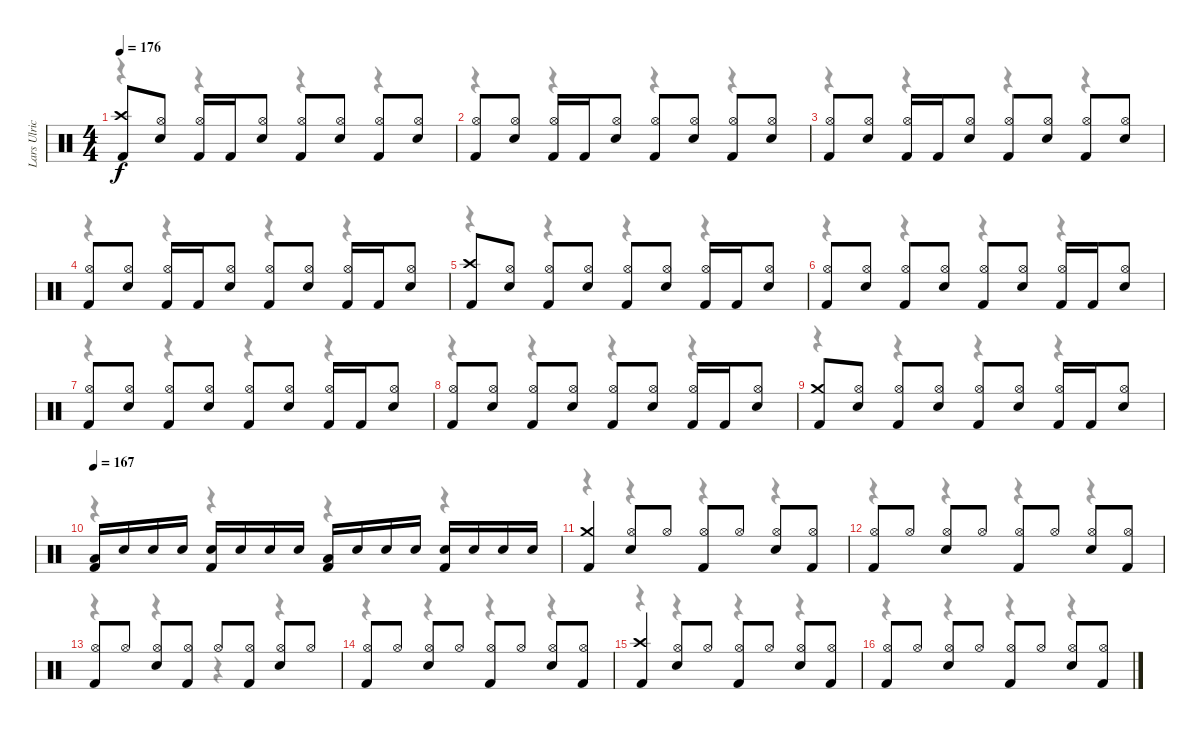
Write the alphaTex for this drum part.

\track ("Lars Ulrich" "Lars Ulric") {instrument percussion}
\staff {score}
\articulation defaults
\voice
\ts (4 4)
\tempo 176
\clef neutral
\ks c
("Crash high (hit)" "Kick (hit) 2").8{dy f} ("Hi-Hat (open)" "Snare (hit) 2").8 ("Hi-Hat (open)" "Kick (hit) 2").16 "Kick (hit) 2".16 ("Hi-Hat (open)" "Snare (hit) 2").8 ("Hi-Hat (open)" "Kick (hit) 2").8 ("Hi-Hat (open)" "Snare (hit) 2").8 ("Hi-Hat (open)" "Kick (hit) 2").8 ("Hi-Hat (open)" "Snare (hit) 2").8 |
("Hi-Hat (open)" "Kick (hit) 2").8 ("Hi-Hat (open)" "Snare (hit) 2").8 ("Hi-Hat (open)" "Kick (hit) 2").16 "Kick (hit) 2".16 ("Hi-Hat (open)" "Snare (hit) 2").8 ("Hi-Hat (open)" "Kick (hit) 2").8 ("Hi-Hat (open)" "Snare (hit) 2").8 ("Hi-Hat (open)" "Kick (hit) 2").8 ("Hi-Hat (open)" "Snare (hit) 2").8 |
("Hi-Hat (open)" "Kick (hit) 2").8 ("Hi-Hat (open)" "Snare (hit) 2").8 ("Hi-Hat (open)" "Kick (hit) 2").16 "Kick (hit) 2".16 ("Hi-Hat (open)" "Snare (hit) 2").8 ("Hi-Hat (open)" "Kick (hit) 2").8 ("Hi-Hat (open)" "Snare (hit) 2").8 ("Hi-Hat (open)" "Kick (hit) 2").8 ("Hi-Hat (open)" "Snare (hit) 2").8 |
("Hi-Hat (open)" "Kick (hit) 2").8 ("Hi-Hat (open)" "Snare (hit) 2").8 ("Hi-Hat (open)" "Kick (hit) 2").16 "Kick (hit) 2".16 ("Hi-Hat (open)" "Snare (hit) 2").8 ("Hi-Hat (open)" "Kick (hit) 2").8 ("Hi-Hat (open)" "Snare (hit) 2").8 ("Hi-Hat (open)" "Kick (hit) 2").16 "Kick (hit) 2".16 ("Hi-Hat (open)" "Snare (hit) 2").8 |
("Crash high (hit)" "Kick (hit) 2").8 ("Hi-Hat (open)" "Snare (hit) 2").8 ("Hi-Hat (open)" "Kick (hit) 2").8 ("Hi-Hat (open)" "Snare (hit) 2").8 ("Hi-Hat (open)" "Kick (hit) 2").8 ("Hi-Hat (open)" "Snare (hit) 2").8 ("Hi-Hat (open)" "Kick (hit) 2").16 "Kick (hit) 2".16 ("Hi-Hat (open)" "Snare (hit) 2").8 |
("Hi-Hat (open)" "Kick (hit) 2").8 ("Hi-Hat (open)" "Snare (hit) 2").8 ("Hi-Hat (open)" "Kick (hit) 2").8 ("Hi-Hat (open)" "Snare (hit) 2").8 ("Hi-Hat (open)" "Kick (hit) 2").8 ("Hi-Hat (open)" "Snare (hit) 2").8 ("Hi-Hat (open)" "Kick (hit) 2").16 "Kick (hit) 2".16 ("Hi-Hat (open)" "Snare (hit) 2").8 |
("Hi-Hat (open)" "Kick (hit) 2").8 ("Hi-Hat (open)" "Snare (hit) 2").8 ("Hi-Hat (open)" "Kick (hit) 2").8 ("Hi-Hat (open)" "Snare (hit) 2").8 ("Hi-Hat (open)" "Kick (hit) 2").8 ("Hi-Hat (open)" "Snare (hit) 2").8 ("Hi-Hat (open)" "Kick (hit) 2").16 "Kick (hit) 2".16 ("Hi-Hat (open)" "Snare (hit) 2").8 |
("Hi-Hat (open)" "Kick (hit) 2").8 ("Hi-Hat (open)" "Snare (hit) 2").8 ("Hi-Hat (open)" "Kick (hit) 2").8 ("Hi-Hat (open)" "Snare (hit) 2").8 ("Hi-Hat (open)" "Kick (hit) 2").8 ("Hi-Hat (open)" "Snare (hit) 2").8 ("Hi-Hat (open)" "Kick (hit) 2").16 "Kick (hit) 2".16 ("Hi-Hat (open)" "Snare (hit) 2").8 |
("Crash medium (hit)" "Kick (hit) 2").8 ("Hi-Hat (open)" "Snare (hit) 2").8 ("Hi-Hat (open)" "Kick (hit) 2").8 ("Hi-Hat (open)" "Snare (hit) 2").8 ("Hi-Hat (open)" "Kick (hit) 2").8 ("Hi-Hat (open)" "Snare (hit) 2").8 ("Hi-Hat (open)" "Kick (hit) 2").16 "Kick (hit) 2".16 ("Hi-Hat (open)" "Snare (hit) 2").8 |
\tempo 167
("Low Tom (hit)" "Kick (hit) 2").16 "Snare (hit) 2".16 "Snare (hit) 2".16 "Snare (hit) 2".16 ("Snare (hit) 2" "Kick (hit) 2").16 "Snare (hit) 2".16 "Snare (hit) 2".16 "Snare (hit) 2".16 ("Low Tom (hit)" "Kick (hit) 2").16 "Snare (hit) 2".16 "Snare (hit) 2".16 "Snare (hit) 2".16 ("Snare (hit) 2" "Kick (hit) 2").16 "Snare (hit) 2".16 "Snare (hit) 2".16 "Snare (hit) 2".16 |
("Crash medium (hit)" "Kick (hit) 2").4 ("Hi-Hat (open)" "Snare (hit) 2").8 "Hi-Hat (open)".8 ("Hi-Hat (open)" "Kick (hit) 2").8 "Hi-Hat (open)".8 ("Hi-Hat (open)" "Snare (hit) 2").8 ("Hi-Hat (open)" "Kick (hit) 2").8 |
("Hi-Hat (open)" "Kick (hit) 2").8 "Hi-Hat (open)".8 ("Hi-Hat (open)" "Snare (hit) 2").8 "Hi-Hat (open)".8 ("Hi-Hat (open)" "Kick (hit) 2").8 "Hi-Hat (open)".8 ("Hi-Hat (open)" "Snare (hit) 2").8 ("Hi-Hat (open)" "Kick (hit) 2").8 |
("Hi-Hat (open)" "Kick (hit) 2").8 "Hi-Hat (open)".8 ("Hi-Hat (open)" "Snare (hit) 2").8 ("Hi-Hat (open)" "Kick (hit) 2").8 "Hi-Hat (open)".8 ("Hi-Hat (open)" "Kick (hit) 2").8 ("Hi-Hat (open)" "Snare (hit) 2").8 "Hi-Hat (open)".8 |
("Hi-Hat (open)" "Kick (hit) 2").8 "Hi-Hat (open)".8 ("Hi-Hat (open)" "Snare (hit) 2").8 "Hi-Hat (open)".8 ("Hi-Hat (open)" "Kick (hit) 2").8 "Hi-Hat (open)".8 ("Hi-Hat (open)" "Snare (hit) 2").8 ("Hi-Hat (open)" "Kick (hit) 2").8 |
("Crash high (hit)" "Kick (hit) 2").4 ("Hi-Hat (open)" "Snare (hit) 2").8 "Hi-Hat (open)".8 ("Hi-Hat (open)" "Kick (hit) 2").8 "Hi-Hat (open)".8 ("Hi-Hat (open)" "Snare (hit) 2").8 ("Hi-Hat (open)" "Kick (hit) 2").8 |
("Hi-Hat (open)" "Kick (hit) 2").8 "Hi-Hat (open)".8 ("Hi-Hat (open)" "Snare (hit) 2").8 "Hi-Hat (open)".8 ("Hi-Hat (open)" "Kick (hit) 2").8 "Hi-Hat (open)".8 ("Hi-Hat (open)" "Snare (hit) 2").8 ("Hi-Hat (open)" "Kick (hit) 2").8
\voice
\clef neutral
\ottava regular
\simile none
\ks c
r.4{dy f} r.4 r.4 r.4 |
r.4 r.4 r.4 r.4 |
r.4 r.4 r.4 r.4 |
r.4 r.4 r.4 r.4 |
r.4 r.4 r.4 r.4 |
r.4 r.4 r.4 r.4 |
r.4 r.4 r.4 r.4 |
r.4 r.4 r.4 r.4 |
r.4 r.4 r.4 r.4 |
r.4 r.4 r.4 r.4 |
r.4 r.4 r.4 r.4 |
r.4 r.4 r.4 r.4 |
r.4 r.4 r.4 r.4 |
r.4 r.4 r.4 r.4 |
r.4 r.4 r.4 r.4 |
r.4 r.4 r.4 r.4
